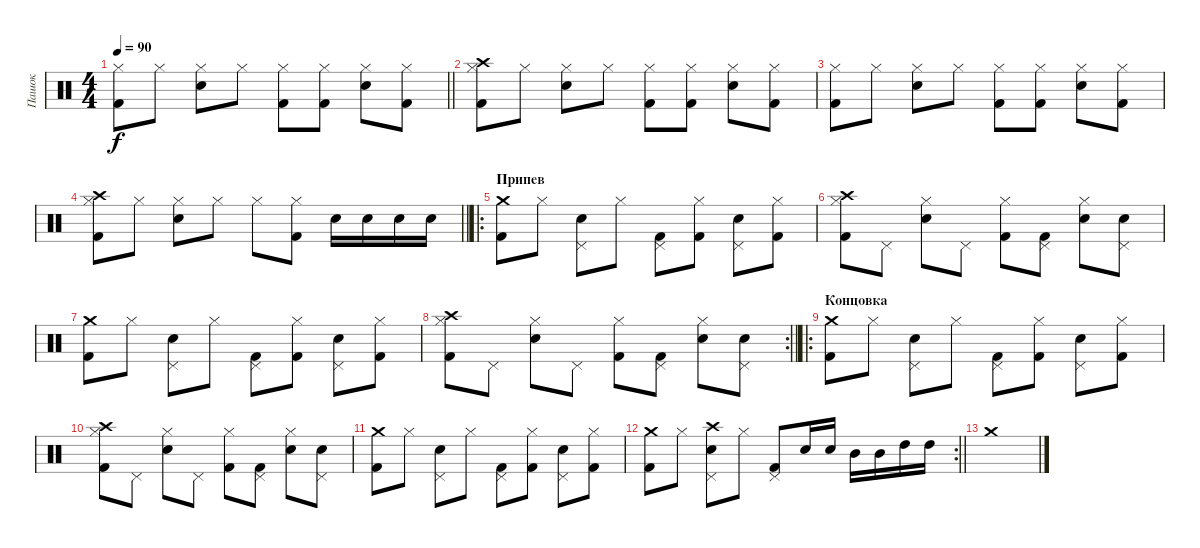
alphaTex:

\track ("Пашок" "Пашок") {instrument percussion}
\staff {score}
\articulation defaults
\ts (4 4)
\tempo 90
\clef neutral
\barLineRight lightlight
\ks c
("Hi-Hat (closed)" "Kick (hit) 2").8{dy f} "Hi-Hat (closed)".8 ("Hi-Hat (closed)" "Electric Snare (hit)").8 "Hi-Hat (closed)".8 ("Hi-Hat (closed)" "Kick (hit) 2").8 ("Hi-Hat (closed)" "Kick (hit) 2").8 ("Hi-Hat (closed)" "Electric Snare (hit)").8 ("Hi-Hat (closed)" "Kick (hit) 2").8 |
("Hi-Hat (closed)" "Kick (hit) 2" "Crash high (hit)").8 "Hi-Hat (closed)".8 ("Hi-Hat (closed)" "Electric Snare (hit)").8 "Hi-Hat (closed)".8 ("Hi-Hat (closed)" "Kick (hit) 2").8 ("Hi-Hat (closed)" "Kick (hit) 2").8 ("Hi-Hat (closed)" "Electric Snare (hit)").8 ("Hi-Hat (closed)" "Kick (hit) 2").8 |
("Hi-Hat (closed)" "Kick (hit) 2").8 "Hi-Hat (closed)".8 ("Hi-Hat (closed)" "Electric Snare (hit)").8 "Hi-Hat (closed)".8 ("Hi-Hat (closed)" "Kick (hit) 2").8 ("Hi-Hat (closed)" "Kick (hit) 2").8 ("Hi-Hat (closed)" "Electric Snare (hit)").8 ("Hi-Hat (closed)" "Kick (hit) 2").8 |
\barLineRight lightlight
("Hi-Hat (closed)" "Kick (hit) 2" "Crash high (hit)").8 "Hi-Hat (closed)".8 ("Hi-Hat (closed)" "Electric Snare (hit)").8 "Hi-Hat (closed)".8 "Hi-Hat (closed)".8 ("Hi-Hat (closed)" "Kick (hit) 2").8 "Electric Snare (hit)".16 "Electric Snare (hit)".16 "Electric Snare (hit)".16 "Electric Snare (hit)".16 |
\ro
\section ("" "Припев")
("Kick (hit) 2" "Crash medium (hit)").8 "Hi-Hat (closed)".8 ("Pedal Hi-Hat (hit)" "Electric Snare (hit)").8 "Hi-Hat (closed)".8 ("Pedal Hi-Hat (hit)" "Kick (hit) 2").8 ("Hi-Hat (closed)" "Kick (hit) 2").8 ("Pedal Hi-Hat (hit)" "Electric Snare (hit)").8 ("Hi-Hat (closed)" "Kick (hit) 2").8 |
("Hi-Hat (closed)" "Kick (hit) 2" "Crash high (hit)").8 "Pedal Hi-Hat (hit)".8 ("Hi-Hat (closed)" "Electric Snare (hit)").8 "Pedal Hi-Hat (hit)".8 ("Hi-Hat (closed)" "Kick (hit) 2").8 ("Pedal Hi-Hat (hit)" "Kick (hit) 2").8 ("Hi-Hat (closed)" "Electric Snare (hit)").8 ("Pedal Hi-Hat (hit)" "Electric Snare (hit)").8 |
("Kick (hit) 2" "Crash medium (hit)").8 "Hi-Hat (closed)".8 ("Pedal Hi-Hat (hit)" "Electric Snare (hit)").8 "Hi-Hat (closed)".8 ("Pedal Hi-Hat (hit)" "Kick (hit) 2").8 ("Hi-Hat (closed)" "Kick (hit) 2").8 ("Pedal Hi-Hat (hit)" "Electric Snare (hit)").8 ("Hi-Hat (closed)" "Kick (hit) 2").8 |
\rc 2
\barLineRight lightlight
("Hi-Hat (closed)" "Kick (hit) 2" "Crash high (hit)").8 "Pedal Hi-Hat (hit)".8 ("Hi-Hat (closed)" "Electric Snare (hit)").8 "Pedal Hi-Hat (hit)".8 ("Hi-Hat (closed)" "Kick (hit) 2").8 ("Pedal Hi-Hat (hit)" "Kick (hit) 2").8 ("Hi-Hat (closed)" "Electric Snare (hit)").8 ("Pedal Hi-Hat (hit)" "Electric Snare (hit)").8 |
\ro
\section ("" "Концовка")
("Kick (hit) 2" "Crash medium (hit)").8 "Hi-Hat (closed)".8 ("Pedal Hi-Hat (hit)" "Electric Snare (hit)").8 "Hi-Hat (closed)".8 ("Pedal Hi-Hat (hit)" "Kick (hit) 2").8 ("Hi-Hat (closed)" "Kick (hit) 2").8 ("Pedal Hi-Hat (hit)" "Electric Snare (hit)").8 ("Hi-Hat (closed)" "Kick (hit) 2").8 |
("Hi-Hat (closed)" "Kick (hit) 2" "Crash high (hit)").8 "Pedal Hi-Hat (hit)".8 ("Hi-Hat (closed)" "Electric Snare (hit)").8 "Pedal Hi-Hat (hit)".8 ("Hi-Hat (closed)" "Kick (hit) 2").8 ("Pedal Hi-Hat (hit)" "Kick (hit) 2").8 ("Hi-Hat (closed)" "Electric Snare (hit)").8 ("Pedal Hi-Hat (hit)" "Electric Snare (hit)").8 |
("Kick (hit) 2" "Crash medium (hit)").8 "Hi-Hat (closed)".8 ("Pedal Hi-Hat (hit)" "Electric Snare (hit)").8 "Hi-Hat (closed)".8 ("Pedal Hi-Hat (hit)" "Kick (hit) 2").8 ("Hi-Hat (closed)" "Kick (hit) 2").8 ("Pedal Hi-Hat (hit)" "Electric Snare (hit)").8 ("Hi-Hat (closed)" "Kick (hit) 2").8 |
\rc 2
\barLineRight lightlight
("Kick (hit) 2" "Crash medium (hit)").8 "Hi-Hat (closed)".8 ("Pedal Hi-Hat (hit)" "Electric Snare (hit)" "Crash high (hit)").8 "Hi-Hat (closed)".8 ("Pedal Hi-Hat (hit)" "Kick (hit) 2").8 "Electric Snare (hit)".16 "Electric Snare (hit)".16 "Mid Tom (hit)".16 "Mid Tom (hit)".16 "High Tom (hit)".16 "High Tom (hit)".16 |
"Crash medium (hit)".1
